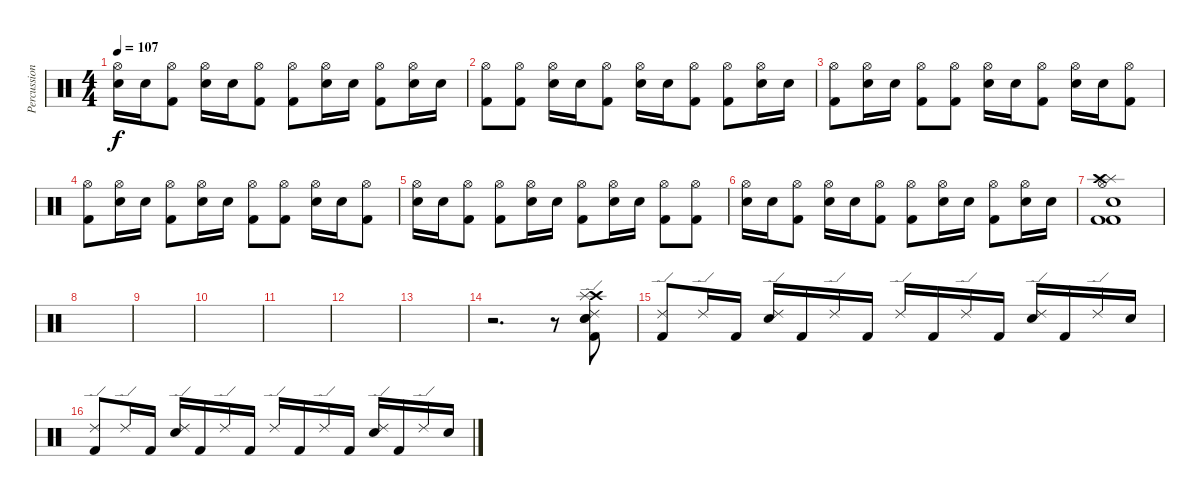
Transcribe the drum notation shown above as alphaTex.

\track ("Percussion" "Percussion") {instrument percussion}
\staff {score}
\articulation defaults
\ts (4 4)
\tempo 107
\clef neutral
\ks c
("Hi-Hat (open)" "Electric Snare (hit)").16{dy f} "Electric Snare (hit)".16 ("Hi-Hat (open)" "Kick (hit) 2").8 ("Hi-Hat (open)" "Electric Snare (hit)").16 "Electric Snare (hit)".16 ("Hi-Hat (open)" "Kick (hit) 2").8 ("Hi-Hat (open)" "Kick (hit) 2").8 ("Hi-Hat (open)" "Electric Snare (hit)").16 "Electric Snare (hit)".16 ("Hi-Hat (open)" "Kick (hit) 2").8 ("Hi-Hat (open)" "Electric Snare (hit)").16 "Electric Snare (hit)".16 |
("Hi-Hat (open)" "Kick (hit) 2").8 ("Hi-Hat (open)" "Kick (hit) 2").8 ("Hi-Hat (open)" "Electric Snare (hit)").16 "Electric Snare (hit)".16 ("Hi-Hat (open)" "Kick (hit) 2").8 ("Hi-Hat (open)" "Electric Snare (hit)").16 "Electric Snare (hit)".16 ("Hi-Hat (open)" "Kick (hit) 2").8 ("Hi-Hat (open)" "Kick (hit) 2").8 ("Hi-Hat (open)" "Electric Snare (hit)").16 "Electric Snare (hit)".16 |
("Hi-Hat (open)" "Kick (hit) 2").8 ("Hi-Hat (open)" "Electric Snare (hit)").16 "Electric Snare (hit)".16 ("Hi-Hat (open)" "Kick (hit) 2").8 ("Hi-Hat (open)" "Kick (hit) 2").8 ("Hi-Hat (open)" "Electric Snare (hit)").16 "Electric Snare (hit)".16 ("Hi-Hat (open)" "Kick (hit) 2").8 ("Hi-Hat (open)" "Electric Snare (hit)").16 "Electric Snare (hit)".16 ("Hi-Hat (open)" "Kick (hit) 2").8 |
("Hi-Hat (open)" "Kick (hit) 2").8 ("Hi-Hat (open)" "Electric Snare (hit)").16 "Electric Snare (hit)".16 ("Hi-Hat (open)" "Kick (hit) 2").8 ("Hi-Hat (open)" "Electric Snare (hit)").16 "Electric Snare (hit)".16 ("Hi-Hat (open)" "Kick (hit) 2").8 ("Hi-Hat (open)" "Kick (hit) 2").8 ("Hi-Hat (open)" "Electric Snare (hit)").16 "Electric Snare (hit)".16 ("Hi-Hat (open)" "Kick (hit) 2").8 |
("Hi-Hat (open)" "Electric Snare (hit)").16 "Electric Snare (hit)".16 ("Hi-Hat (open)" "Kick (hit) 2").8 ("Hi-Hat (open)" "Kick (hit) 2").8 ("Hi-Hat (open)" "Electric Snare (hit)").16 "Electric Snare (hit)".16 ("Hi-Hat (open)" "Kick (hit) 2").8 ("Hi-Hat (open)" "Electric Snare (hit)").16 "Electric Snare (hit)".16 ("Hi-Hat (open)" "Kick (hit) 2").8 ("Hi-Hat (open)" "Kick (hit) 2").8 |
("Hi-Hat (open)" "Electric Snare (hit)").16 "Electric Snare (hit)".16 ("Hi-Hat (open)" "Kick (hit) 2").8 ("Hi-Hat (open)" "Electric Snare (hit)").16 "Electric Snare (hit)".16 ("Hi-Hat (open)" "Kick (hit) 2").8 ("Hi-Hat (open)" "Kick (hit) 2").8 ("Hi-Hat (open)" "Electric Snare (hit)").16 "Electric Snare (hit)".16 ("Hi-Hat (open)" "Kick (hit) 2").8 ("Hi-Hat (open)" "Electric Snare (hit)").16 "Electric Snare (hit)".16 |
("Splash (hit)" "Crash high (hit)" "Electric Snare (hit)" "Hi-Hat (open)" "Kick (hit) 2" "Kick (hit) 2").1 |
|
|
|
|
|
|
r.2{d} r.8 ("Ride (edge) 2" "Crash high (hit)" "Splash (hit)" "Electric Snare (hit)" "Kick (hit) 2" "Snare (hit) 2").8 |
("Ride (edge) 2" "Kick (hit) 2").8 "Ride (edge) 2".16 "Kick (hit) 2".16 ("Ride (edge) 2" "Electric Snare (hit)").16 "Kick (hit) 2".16 "Ride (edge) 2".16 "Kick (hit) 2".16 "Ride (edge) 2".16 "Kick (hit) 2".16 "Ride (edge) 2".16 "Kick (hit) 2".16 ("Ride (edge) 2" "Electric Snare (hit)").16 "Kick (hit) 2".16 "Ride (edge) 2".16 "Electric Snare (hit)".16 |
("Ride (edge) 2" "Kick (hit) 2").8 "Ride (edge) 2".16 "Kick (hit) 2".16 ("Ride (edge) 2" "Electric Snare (hit)").16 "Kick (hit) 2".16 "Ride (edge) 2".16 "Kick (hit) 2".16 "Ride (edge) 2".16 "Kick (hit) 2".16 "Ride (edge) 2".16 "Kick (hit) 2".16 ("Ride (edge) 2" "Electric Snare (hit)").16 "Kick (hit) 2".16 "Ride (edge) 2".16 "Electric Snare (hit)".16
